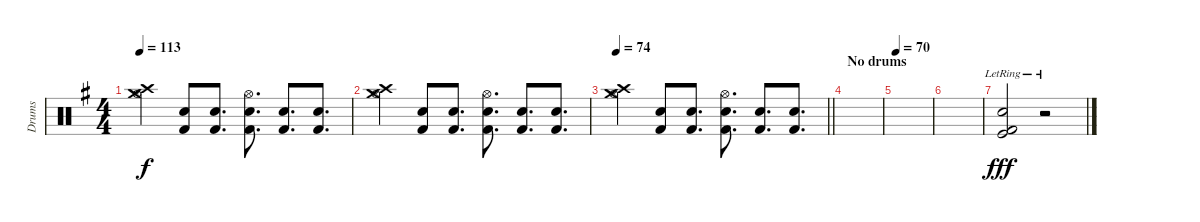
\track ("Drums" "Drums") {instrument percussion}
\staff {score}
\articulation defaults
\ts (4 4)
\tempo 113
\clef neutral
\ks g
("Crash high (hit)" "Crash medium (hit)" "Hi-Hat (open)").4{dy f} ("Kick (hit) 2" "Electric Snare (hit)").8 ("Kick (hit) 2" "Electric Snare (hit)").8{d} ("Hi-Hat (open)" "Kick (hit) 2" "Electric Snare (hit)").8{d} ("Kick (hit) 2" "Electric Snare (hit)").8{d} ("Kick (hit) 2" "Electric Snare (hit)").8{d} |
("Crash high (hit)" "Crash medium (hit)" "Hi-Hat (open)").4 ("Kick (hit) 2" "Electric Snare (hit)").8 ("Kick (hit) 2" "Electric Snare (hit)").8{d} ("Hi-Hat (open)" "Kick (hit) 2" "Electric Snare (hit)").8{d} ("Kick (hit) 2" "Electric Snare (hit)").8{d} ("Kick (hit) 2" "Electric Snare (hit)").8{d} |
\tempo 74
\barLineRight lightlight
("Crash high (hit)" "Crash medium (hit)" "Hi-Hat (open)").4 ("Kick (hit) 2" "Electric Snare (hit)").8 ("Kick (hit) 2" "Electric Snare (hit)").8{d} ("Hi-Hat (open)" "Kick (hit) 2" "Electric Snare (hit)").8{d} ("Kick (hit) 2" "Electric Snare (hit)").8{d} ("Kick (hit) 2" "Electric Snare (hit)").8{d} |
\section ("" "No drums")
|
\tempo 70
|
|
("Kick (hit)"{lr} "Kick (hit) 2"{lr} "Snare (hit) 2"{lr}).2{dy fff} r.2
